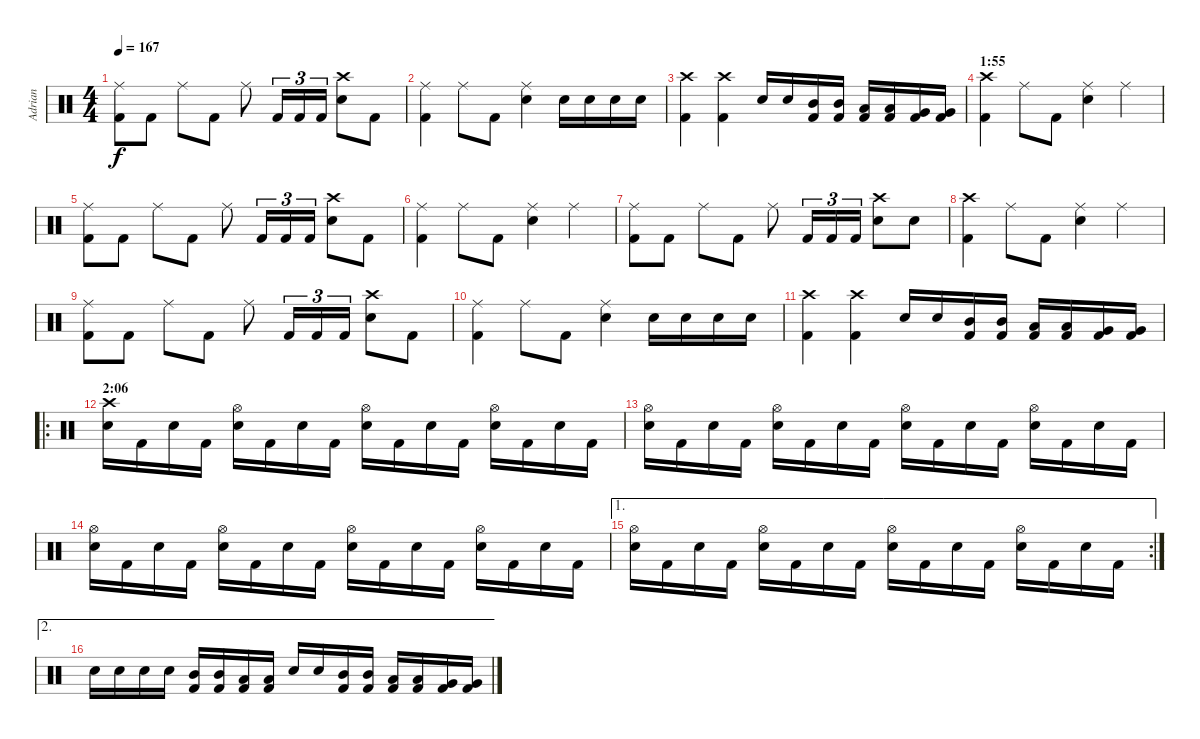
\track ("Adrian" "Adrian") {instrument percussion}
\staff {score}
\articulation defaults
\ts (4 4)
\tempo 167
\clef neutral
\ks c
("Kick (hit) 2" "Ride (middle)").8{dy f} "Kick (hit) 2".8 "Ride (middle)".8 "Kick (hit) 2".8 "Ride (middle)".8 "Kick (hit) 2".16{tu (3 2)} "Kick (hit) 2".16{tu (3 2)} "Kick (hit) 2".16{tu (3 2)} ("Snare (hit) 2" "Crash high (hit)").8 "Kick (hit) 2".8 |
("Kick (hit) 2" "Ride (middle)").4 "Ride (middle)".8 "Kick (hit) 2".8 ("Snare (hit) 2" "Ride (middle)").4 "Snare (hit) 2".16 "Snare (hit) 2".16 "Snare (hit) 2".16 "Snare (hit) 2".16 |
("Kick (hit) 2" "Crash high (hit)").4 ("Kick (hit) 2" "Crash high (hit)").4 "Snare (hit) 2".16 "Snare (hit) 2".16 ("Kick (hit) 2" "Mid Tom (hit)").16 ("Kick (hit) 2" "Mid Tom (hit)").16 ("Kick (hit) 2" "Low Tom (hit)").16 ("Kick (hit) 2" "Low Tom (hit)").16 ("Kick (hit) 2" "Very Low Tom (hit)").16 ("Kick (hit) 2" "Very Low Tom (hit)").16 |
\section ("" "1:55")
("Kick (hit) 2" "Crash high (hit)").4 "Ride (middle)".8 "Kick (hit) 2".8 ("Snare (hit) 2" "Ride (middle)").4 "Ride (middle)".4 |
("Kick (hit) 2" "Ride (middle)").8 "Kick (hit) 2".8 "Ride (middle)".8 "Kick (hit) 2".8 "Ride (middle)".8 "Kick (hit) 2".16{tu (3 2)} "Kick (hit) 2".16{tu (3 2)} "Kick (hit) 2".16{tu (3 2)} ("Snare (hit) 2" "Crash high (hit)").8 "Kick (hit) 2".8 |
("Kick (hit) 2" "Ride (middle)").4 "Ride (middle)".8 "Kick (hit) 2".8 ("Snare (hit) 2" "Ride (middle)").4 "Ride (middle)".4 |
("Kick (hit) 2" "Ride (middle)").8 "Kick (hit) 2".8 "Ride (middle)".8 "Kick (hit) 2".8 "Ride (middle)".8 "Kick (hit) 2".16{tu (3 2)} "Kick (hit) 2".16{tu (3 2)} "Kick (hit) 2".16{tu (3 2)} ("Snare (hit) 2" "Crash high (hit)").8 "Snare (hit) 2".8 |
("Kick (hit) 2" "Crash high (hit)").4 "Ride (middle)".8 "Kick (hit) 2".8 ("Snare (hit) 2" "Ride (middle)").4 "Ride (middle)".4 |
("Kick (hit) 2" "Ride (middle)").8 "Kick (hit) 2".8 "Ride (middle)".8 "Kick (hit) 2".8 "Ride (middle)".8 "Kick (hit) 2".16{tu (3 2)} "Kick (hit) 2".16{tu (3 2)} "Kick (hit) 2".16{tu (3 2)} ("Snare (hit) 2" "Crash high (hit)").8 "Kick (hit) 2".8 |
("Kick (hit) 2" "Ride (middle)").4 "Ride (middle)".8 "Kick (hit) 2".8 ("Snare (hit) 2" "Ride (middle)").4 "Snare (hit) 2".16 "Snare (hit) 2".16 "Snare (hit) 2".16 "Snare (hit) 2".16 |
("Kick (hit) 2" "Crash high (hit)").4 ("Kick (hit) 2" "Crash high (hit)").4 "Snare (hit) 2".16 "Snare (hit) 2".16 ("Kick (hit) 2" "Mid Tom (hit)").16 ("Kick (hit) 2" "Mid Tom (hit)").16 ("Kick (hit) 2" "Low Tom (hit)").16 ("Kick (hit) 2" "Low Tom (hit)").16 ("Kick (hit) 2" "Very Low Tom (hit)").16 ("Kick (hit) 2" "Very Low Tom (hit)").16 |
\ro
\section ("" "2:06")
("Snare (hit) 2" "Crash high (hit)").16 "Kick (hit) 2".16 "Snare (hit) 2".16 "Kick (hit) 2".16 ("Snare (hit) 2" "Hi-Hat (open)").16 "Kick (hit) 2".16 "Snare (hit) 2".16 "Kick (hit) 2".16 ("Snare (hit) 2" "Hi-Hat (open)").16 "Kick (hit) 2".16 "Snare (hit) 2".16 "Kick (hit) 2".16 ("Snare (hit) 2" "Hi-Hat (open)").16 "Kick (hit) 2".16 "Snare (hit) 2".16 "Kick (hit) 2".16 |
("Snare (hit) 2" "Hi-Hat (open)").16 "Kick (hit) 2".16 "Snare (hit) 2".16 "Kick (hit) 2".16 ("Snare (hit) 2" "Hi-Hat (open)").16 "Kick (hit) 2".16 "Snare (hit) 2".16 "Kick (hit) 2".16 ("Snare (hit) 2" "Hi-Hat (open)").16 "Kick (hit) 2".16 "Snare (hit) 2".16 "Kick (hit) 2".16 ("Snare (hit) 2" "Hi-Hat (open)").16 "Kick (hit) 2".16 "Snare (hit) 2".16 "Kick (hit) 2".16 |
("Snare (hit) 2" "Hi-Hat (open)").16 "Kick (hit) 2".16 "Snare (hit) 2".16 "Kick (hit) 2".16 ("Snare (hit) 2" "Hi-Hat (open)").16 "Kick (hit) 2".16 "Snare (hit) 2".16 "Kick (hit) 2".16 ("Snare (hit) 2" "Hi-Hat (open)").16 "Kick (hit) 2".16 "Snare (hit) 2".16 "Kick (hit) 2".16 ("Snare (hit) 2" "Hi-Hat (open)").16 "Kick (hit) 2".16 "Snare (hit) 2".16 "Kick (hit) 2".16 |
\ae 1
\rc 2
("Snare (hit) 2" "Hi-Hat (open)").16 "Kick (hit) 2".16 "Snare (hit) 2".16 "Kick (hit) 2".16 ("Snare (hit) 2" "Hi-Hat (open)").16 "Kick (hit) 2".16 "Snare (hit) 2".16 "Kick (hit) 2".16 ("Snare (hit) 2" "Hi-Hat (open)").16 "Kick (hit) 2".16 "Snare (hit) 2".16 "Kick (hit) 2".16 ("Snare (hit) 2" "Hi-Hat (open)").16 "Kick (hit) 2".16 "Snare (hit) 2".16 "Kick (hit) 2".16 |
\ae 2 "Snare (hit) 2".16 "Snare (hit) 2".16 "Snare (hit) 2".16 "Snare (hit) 2".16
("Kick (hit) 2" "Mid Tom (hit)").16 ("Kick (hit) 2" "Mid Tom (hit)").16 ("Kick (hit) 2" "Low Tom (hit)").16 ("Kick (hit) 2" "Low Tom (hit)").16 "Snare (hit) 2".16 "Snare (hit) 2".16 ("Kick (hit) 2" "Mid Tom (hit)").16 ("Kick (hit) 2" "Mid Tom (hit)").16 ("Kick (hit) 2" "Low Tom (hit)").16 ("Kick (hit) 2" "Low Tom (hit)").16 ("Kick (hit) 2" "Very Low Tom (hit)").16 ("Kick (hit) 2" "Very Low Tom (hit)").16
